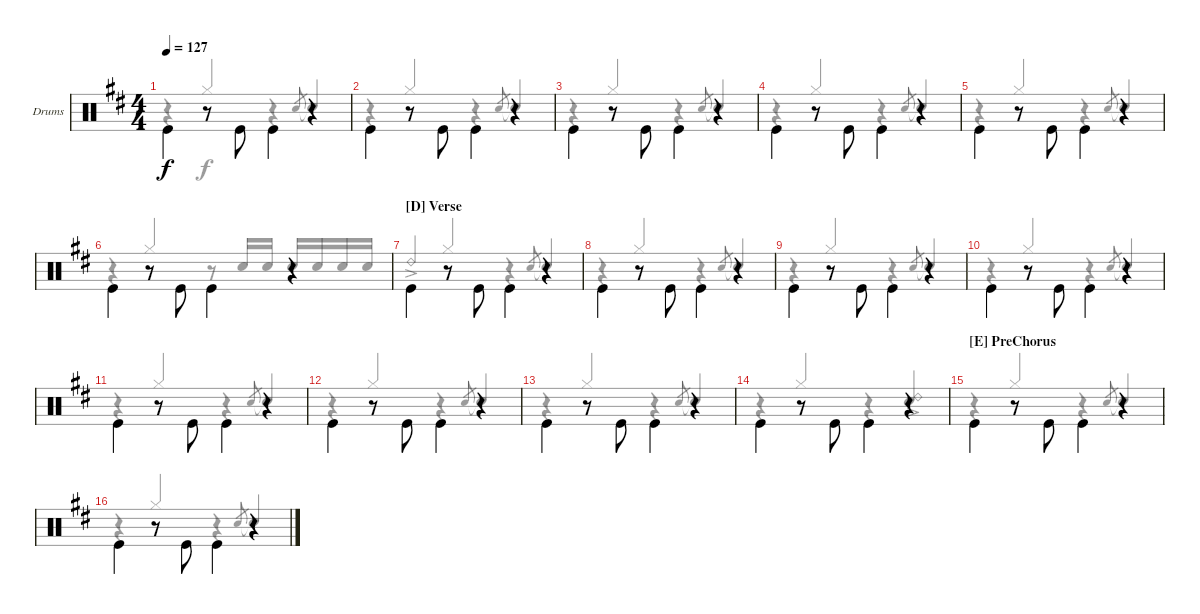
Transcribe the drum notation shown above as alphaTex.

\bracketExtendMode groupsimilarinstruments
\firstSystemTrackNameOrientation horizontal
\otherSystemsTrackNameOrientation horizontal
\track ("Drum" "Drums") {instrument percussion}
\staff {score}
\articulation defaults
\voice
\ts (4 4)
\tempo 127
\clef neutral
\scale
0.5
\ks d "Kick (hit)".4{dy f beam invert}
r.8 "Kick (hit)".8{beam invert} "Kick (hit)".4{beam invert} r.4 |
\scale
0.5 "Kick (hit)".4{beam invert} r.8 "Kick (hit)".8{beam invert} "Kick (hit)".4{beam invert} r.4 |
\scale
0.5 "Kick (hit)".4{beam invert} r.8 "Kick (hit)".8{beam invert} "Kick (hit)".4{beam invert} r.4 |
\scale
0.5 "Kick (hit)".4{beam invert} r.8 "Kick (hit)".8{beam invert} "Kick (hit)".4{beam invert} r.4 |
\scale
0.5 "Kick (hit)".4{beam invert} r.8 "Kick (hit)".8{beam invert} "Kick (hit)".4{beam invert} r.4 |
\scale
0.5 "Kick (hit)".4{beam invert} r.8 "Kick (hit)".8{beam invert} "Kick (hit)".4{beam invert} r.4 |
\section ("D" "Verse")
\scale
0.5 "Kick (hit)".4{beam invert} r.8 "Kick (hit)".8{beam invert} "Kick (hit)".4{beam invert} r.4 |
\scale
0.5 "Kick (hit)".4{beam invert} r.8 "Kick (hit)".8{beam invert} "Kick (hit)".4{beam invert} r.4 |
\scale
0.5 "Kick (hit)".4{beam invert} r.8 "Kick (hit)".8{beam invert} "Kick (hit)".4{beam invert} r.4 |
\scale
0.5 "Kick (hit)".4{beam invert} r.8 "Kick (hit)".8{beam invert} "Kick (hit)".4{beam invert} r.4 |
\scale
0.5 "Kick (hit)".4{beam invert} r.8 "Kick (hit)".8{beam invert} "Kick (hit)".4{beam invert} r.4 |
\scale
0.5 "Kick (hit)".4{beam invert} r.8 "Kick (hit)".8{beam invert} "Kick (hit)".4{beam invert} r.4 |
\scale
0.5 "Kick (hit)".4{beam invert} r.8 "Kick (hit)".8{beam invert} "Kick (hit)".4{beam invert} r.4 |
\scale
0.5 "Kick (hit)".4{beam invert} r.8 "Kick (hit)".8{beam invert} "Kick (hit)".4{beam invert} r.4 |
\section ("E" "PreChorus")
\scale
0.5 "Kick (hit)".4{beam invert} r.8 "Kick (hit)".8{beam invert} "Kick (hit)".4{beam invert} r.4 |
\scale
0.5 "Kick (hit)".4{beam invert} r.8 "Kick (hit)".8{beam invert} "Kick (hit)".4{beam invert} r.4
\voice
\clef neutral
\ottava regular
\simile none
\scale
0.5
\ks d
r.4{dy f} "Hi-Hat (closed)".4{beam invert} r.4 "Snare (hit) 2".8{gr beam invert} "Snare (hit) 2"{t}.4{beam invert} |
\scale
0.5 r.4 "Hi-Hat (closed)".4{beam invert} r.4 "Snare (hit) 2".8{gr beam invert} "Snare (hit) 2"{t}.4{beam invert} |
\scale
0.5 r.4 "Hi-Hat (closed)".4{beam invert} r.4 "Snare (hit) 2".8{gr beam invert} "Snare (hit) 2"{t}.4{beam invert} |
\scale
0.5 r.4 "Hi-Hat (closed)".4{beam invert} r.4 "Snare (hit) 2".8{gr beam invert} "Snare (hit) 2"{t}.4{beam invert} |
\scale
0.5 r.4 "Hi-Hat (closed)".4{beam invert} r.4 "Snare (hit) 2".8{gr beam invert} "Snare (hit) 2"{t}.4{beam invert} |
\scale
0.5 r.4 "Hi-Hat (closed)".4{beam invert} r.8 "Snare (hit) 2".16{beam invert} "Snare (hit) 2".16 "Snare (hit) 2".16{beam invert} "Snare (hit) 2".16 "Snare (hit) 2".16 "Snare (hit) 2".16 |
\scale
0.5 "Ride (bell) 2"{ac}.4{beam invert} "Hi-Hat (closed)".4{beam invert} r.4 "Snare (hit) 2".8{gr beam invert} "Snare (hit) 2"{t}.4{beam invert} |
\scale
0.5 r.4 "Hi-Hat (closed)".4{beam invert} r.4 "Snare (hit) 2".8{gr beam invert} "Snare (hit) 2"{t}.4{beam invert} |
\scale
0.5 r.4 "Hi-Hat (closed)".4{beam invert} r.4 "Snare (hit) 2".8{gr beam invert} "Snare (hit) 2"{t}.4{beam invert} |
\scale
0.5 r.4 "Hi-Hat (closed)".4{beam invert} r.4 "Snare (hit) 2".8{gr beam invert} "Snare (hit) 2"{t}.4{beam invert} |
\scale
0.5 r.4 "Hi-Hat (closed)".4{beam invert} r.4 "Snare (hit) 2".8{gr beam invert} "Snare (hit) 2"{t}.4{beam invert} |
\scale
0.5 r.4 "Hi-Hat (closed)".4{beam invert} r.4 "Snare (hit) 2".8{gr beam invert} "Snare (hit) 2"{t}.4{beam invert} |
\scale
0.5 r.4 "Hi-Hat (closed)".4{beam invert} r.4 "Snare (hit) 2".8{gr beam invert} "Snare (hit) 2"{t}.4{beam invert} |
\scale
0.5 r.4{beam invert} "Hi-Hat (closed)".4{beam invert} r.4 ("Snare (hit) 2" "Ride (bell) 2"{ac}).4{beam invert} |
\scale
0.5 r.4 "Hi-Hat (closed)".4{beam invert} r.4 "Snare (hit) 2".8{gr beam invert} "Snare (hit) 2"{t}.4{beam invert} |
\scale
0.5 r.4 "Hi-Hat (closed)".4{beam invert} r.4 "Snare (hit) 2".8{gr beam invert} "Snare (hit) 2"{t}.4{beam invert}
